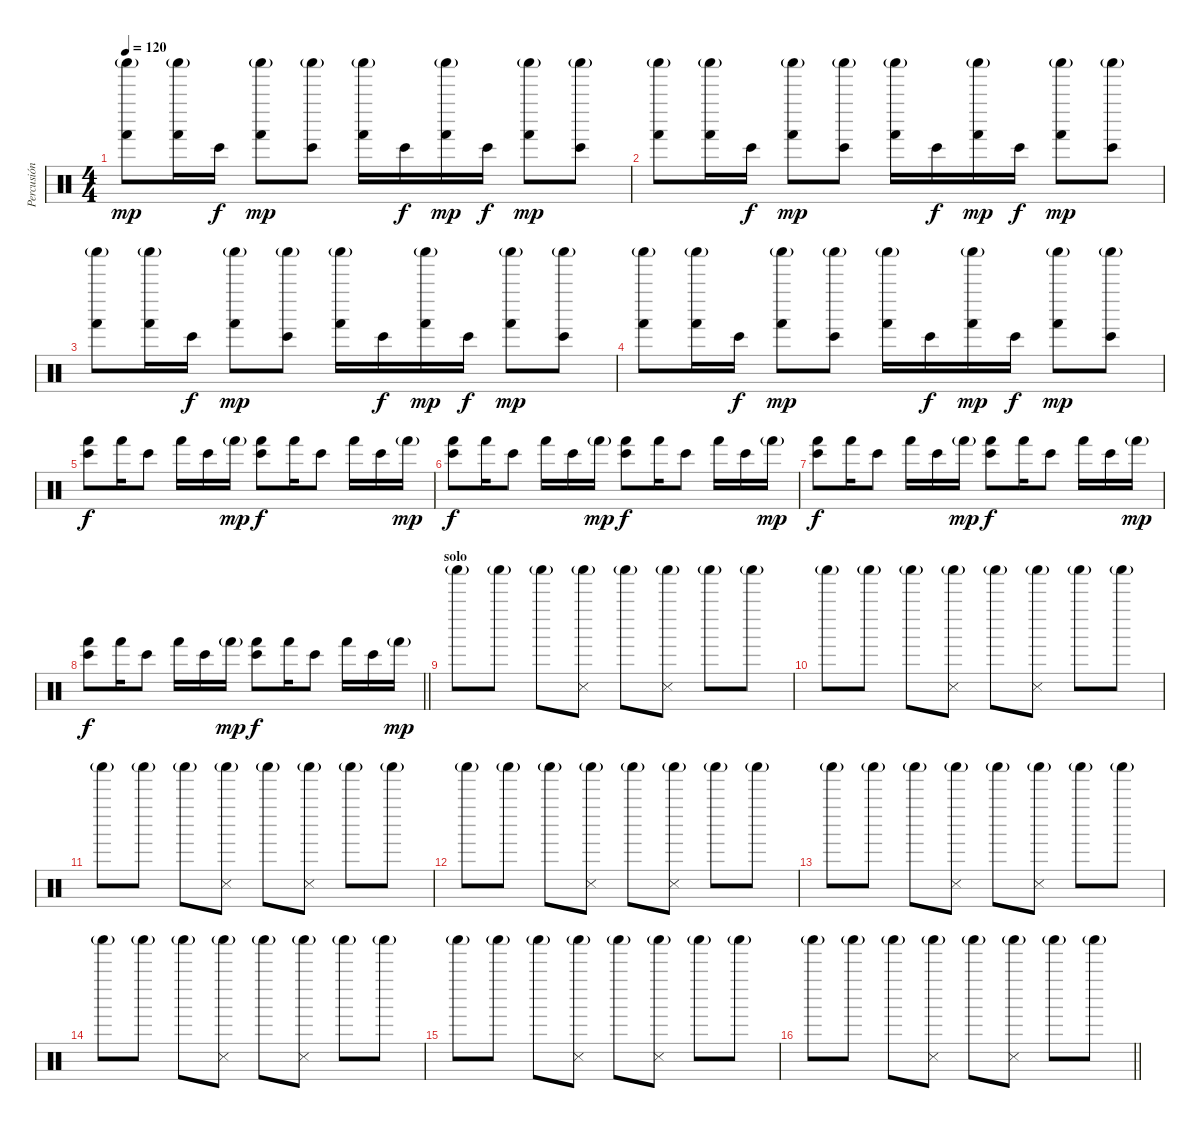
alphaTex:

\track ("Percusión" "Percusión") {instrument percussion}
\staff {score}
\articulation defaults
\ts (4 4)
\tempo 120
\clef neutral
\ks c
("Hand (hit)" "Shaker (hit)"{g}).8{dy mp} ("Hand (hit)" "Shaker (hit)"{g}).16 "Bongo High (hit)".16{dy f} ("Hand (hit)" "Shaker (hit)"{g}).8{dy mp} ("Bongo High (hit)" "Shaker (hit)"{g}).8 ("Hand (hit)" "Shaker (hit)"{g}).16 "Bongo High (hit)".16{dy f} ("Hand (hit)" "Shaker (hit)"{g}).16{dy mp} "Bongo High (hit)".16{dy f} ("Hand (hit)" "Shaker (hit)"{g}).8{dy mp} ("Bongo High (hit)" "Shaker (hit)"{g}).8 |
("Hand (hit)" "Shaker (hit)"{g}).8 ("Hand (hit)" "Shaker (hit)"{g}).16 "Bongo High (hit)".16{dy f} ("Hand (hit)" "Shaker (hit)"{g}).8{dy mp} ("Bongo High (hit)" "Shaker (hit)"{g}).8 ("Hand (hit)" "Shaker (hit)"{g}).16 "Bongo High (hit)".16{dy f} ("Hand (hit)" "Shaker (hit)"{g}).16{dy mp} "Bongo High (hit)".16{dy f} ("Hand (hit)" "Shaker (hit)"{g}).8{dy mp} ("Bongo High (hit)" "Shaker (hit)"{g}).8 |
("Hand (hit)" "Shaker (hit)"{g}).8 ("Hand (hit)" "Shaker (hit)"{g}).16 "Bongo High (hit)".16{dy f} ("Hand (hit)" "Shaker (hit)"{g}).8{dy mp} ("Bongo High (hit)" "Shaker (hit)"{g}).8 ("Hand (hit)" "Shaker (hit)"{g}).16 "Bongo High (hit)".16{dy f} ("Hand (hit)" "Shaker (hit)"{g}).16{dy mp} "Bongo High (hit)".16{dy f} ("Hand (hit)" "Shaker (hit)"{g}).8{dy mp} ("Bongo High (hit)" "Shaker (hit)"{g}).8 |
("Hand (hit)" "Shaker (hit)"{g}).8 ("Hand (hit)" "Shaker (hit)"{g}).16 "Bongo High (hit)".16{dy f} ("Hand (hit)" "Shaker (hit)"{g}).8{dy mp} ("Bongo High (hit)" "Shaker (hit)"{g}).8 ("Hand (hit)" "Shaker (hit)"{g}).16 "Bongo High (hit)".16{dy f} ("Hand (hit)" "Shaker (hit)"{g}).16{dy mp} "Bongo High (hit)".16{dy f} ("Hand (hit)" "Shaker (hit)"{g}).8{dy mp} ("Bongo High (hit)" "Shaker (hit)"{g}).8 |
("Hand (hit)" "Bongo High (hit)").8{dy f} "Hand (hit)".16 "Bongo High (hit)".8 "Hand (hit)".16 "Bongo High (hit)".16 "Hand (hit)"{g}.16{dy mp} ("Hand (hit)" "Bongo High (hit)").8{dy f} "Hand (hit)".16 "Bongo High (hit)".8 "Hand (hit)".16 "Bongo High (hit)".16 "Hand (hit)"{g}.16{dy mp} |
("Hand (hit)" "Bongo High (hit)").8{dy f} "Hand (hit)".16 "Bongo High (hit)".8 "Hand (hit)".16 "Bongo High (hit)".16 "Hand (hit)"{g}.16{dy mp} ("Hand (hit)" "Bongo High (hit)").8{dy f} "Hand (hit)".16 "Bongo High (hit)".8 "Hand (hit)".16 "Bongo High (hit)".16 "Hand (hit)"{g}.16{dy mp} |
("Hand (hit)" "Bongo High (hit)").8{dy f} "Hand (hit)".16 "Bongo High (hit)".8 "Hand (hit)".16 "Bongo High (hit)".16 "Hand (hit)"{g}.16{dy mp} ("Hand (hit)" "Bongo High (hit)").8{dy f} "Hand (hit)".16 "Bongo High (hit)".8 "Hand (hit)".16 "Bongo High (hit)".16 "Hand (hit)"{g}.16{dy mp} |
\barLineRight lightlight
("Hand (hit)" "Bongo High (hit)").8{dy f} "Hand (hit)".16 "Bongo High (hit)".8 "Hand (hit)".16 "Bongo High (hit)".16 "Hand (hit)"{g}.16{dy mp} ("Hand (hit)" "Bongo High (hit)").8{dy f} "Hand (hit)".16 "Bongo High (hit)".8 "Hand (hit)".16 "Bongo High (hit)".16 "Hand (hit)"{g}.16{dy mp} |
\section ("" "solo")
"Shaker (hit)"{g}.8 "Shaker (hit)"{g}.8 "Shaker (hit)"{g}.8 ("Snare (side stick) 3" "Shaker (hit)"{g}).8 "Shaker (hit)"{g}.8 ("Snare (side stick) 3" "Shaker (hit)"{g}).8 "Shaker (hit)"{g}.8 "Shaker (hit)"{g}.8 |
"Shaker (hit)"{g}.8 "Shaker (hit)"{g}.8 "Shaker (hit)"{g}.8 ("Snare (side stick) 3" "Shaker (hit)"{g}).8 "Shaker (hit)"{g}.8 ("Snare (side stick) 3" "Shaker (hit)"{g}).8 "Shaker (hit)"{g}.8 "Shaker (hit)"{g}.8 |
"Shaker (hit)"{g}.8 "Shaker (hit)"{g}.8 "Shaker (hit)"{g}.8 ("Snare (side stick) 3" "Shaker (hit)"{g}).8 "Shaker (hit)"{g}.8 ("Snare (side stick) 3" "Shaker (hit)"{g}).8 "Shaker (hit)"{g}.8 "Shaker (hit)"{g}.8 |
"Shaker (hit)"{g}.8 "Shaker (hit)"{g}.8 "Shaker (hit)"{g}.8 ("Snare (side stick) 3" "Shaker (hit)"{g}).8 "Shaker (hit)"{g}.8 ("Snare (side stick) 3" "Shaker (hit)"{g}).8 "Shaker (hit)"{g}.8 "Shaker (hit)"{g}.8 |
"Shaker (hit)"{g}.8 "Shaker (hit)"{g}.8 "Shaker (hit)"{g}.8 ("Snare (side stick) 3" "Shaker (hit)"{g}).8 "Shaker (hit)"{g}.8 ("Snare (side stick) 3" "Shaker (hit)"{g}).8 "Shaker (hit)"{g}.8 "Shaker (hit)"{g}.8 |
"Shaker (hit)"{g}.8 "Shaker (hit)"{g}.8 "Shaker (hit)"{g}.8 ("Snare (side stick) 3" "Shaker (hit)"{g}).8 "Shaker (hit)"{g}.8 ("Snare (side stick) 3" "Shaker (hit)"{g}).8 "Shaker (hit)"{g}.8 "Shaker (hit)"{g}.8 |
"Shaker (hit)"{g}.8 "Shaker (hit)"{g}.8 "Shaker (hit)"{g}.8 ("Snare (side stick) 3" "Shaker (hit)"{g}).8 "Shaker (hit)"{g}.8 ("Snare (side stick) 3" "Shaker (hit)"{g}).8 "Shaker (hit)"{g}.8 "Shaker (hit)"{g}.8 |
\barLineRight lightlight "Shaker (hit)"{g}.8 "Shaker (hit)"{g}.8 "Shaker (hit)"{g}.8
("Snare (side stick) 3" "Shaker (hit)"{g}).8 "Shaker (hit)"{g}.8 ("Snare (side stick) 3" "Shaker (hit)"{g}).8 "Shaker (hit)"{g}.8 "Shaker (hit)"{g}.8
